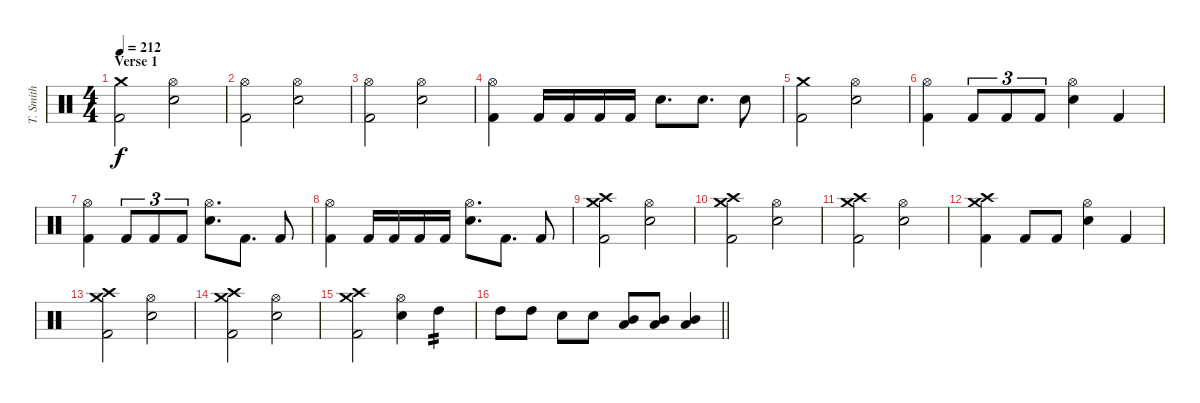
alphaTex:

\track ("T. Smith" "T. Smith") {instrument percussion}
\staff {score}
\articulation defaults
\ts (4 4)
\section ("" "Verse 1")
\tempo 212
\clef neutral
\ks c
("Crash medium (hit)" "Kick (hit) 2").2{dy f} ("Hi-Hat (open)" "Electric Snare (hit)").2 |
("Hi-Hat (open)" "Kick (hit) 2").2 ("Hi-Hat (open)" "Electric Snare (hit)").2 |
("Hi-Hat (open)" "Kick (hit) 2").2 ("Hi-Hat (open)" "Electric Snare (hit)").2 |
("Hi-Hat (open)" "Kick (hit) 2").4 "Kick (hit) 2".16 "Kick (hit) 2".16 "Kick (hit) 2".16 "Kick (hit) 2".16 "Electric Snare (hit)".8{d} "Electric Snare (hit)".8{d} "Electric Snare (hit)".8 |
("Crash medium (hit)" "Kick (hit) 2").2 ("Hi-Hat (open)" "Electric Snare (hit)").2 |
("Hi-Hat (open)" "Kick (hit) 2").4 "Kick (hit) 2".8{tu (3 2)} "Kick (hit) 2".8{tu (3 2)} "Kick (hit) 2".8{tu (3 2)} ("Hi-Hat (open)" "Electric Snare (hit)").4 "Kick (hit) 2".4 |
("Hi-Hat (open)" "Kick (hit) 2").4 "Kick (hit) 2".8{tu (3 2)} "Kick (hit) 2".8{tu (3 2)} "Kick (hit) 2".8{tu (3 2)} ("Hi-Hat (open)" "Electric Snare (hit)").8{d} "Kick (hit) 2".8{d} "Kick (hit) 2".8 |
("Hi-Hat (open)" "Kick (hit) 2").4 "Kick (hit) 2".16 "Kick (hit) 2".16 "Kick (hit) 2".16 "Kick (hit) 2".16 ("Hi-Hat (open)" "Electric Snare (hit)").8{d} "Kick (hit) 2".8{d} "Kick (hit) 2".8 |
("Crash medium (hit)" "Crash high (hit)" "Kick (hit) 2").2 ("Hi-Hat (open)" "Electric Snare (hit)").2 |
("Crash medium (hit)" "Crash high (hit)" "Kick (hit) 2").2 ("Hi-Hat (open)" "Electric Snare (hit)").2 |
("Crash medium (hit)" "Crash high (hit)" "Kick (hit) 2").2 ("Hi-Hat (open)" "Electric Snare (hit)").2 |
("Crash medium (hit)" "Crash high (hit)" "Kick (hit) 2").4 "Kick (hit) 2".8 "Kick (hit) 2".8 ("Hi-Hat (open)" "Electric Snare (hit)").4 "Kick (hit) 2".4 |
("Crash medium (hit)" "Crash high (hit)" "Kick (hit) 2").2 ("Hi-Hat (open)" "Electric Snare (hit)").2 |
("Crash medium (hit)" "Crash high (hit)" "Kick (hit) 2").2 ("Hi-Hat (open)" "Electric Snare (hit)").2 |
("Crash medium (hit)" "Crash high (hit)" "Kick (hit) 2").2 ("Hi-Hat (open)" "Electric Snare (hit)").4 "High Tom (hit)".4{tp 2} |
\barLineRight lightlight "High Tom (hit)".8 "High Tom (hit)".8 "Electric Snare (hit)".8 "Electric Snare (hit)".8
("Mid Tom (hit)" "Low Tom (hit)").8 ("Mid Tom (hit)" "Low Tom (hit)").8 ("Mid Tom (hit)" "Low Tom (hit)").4
